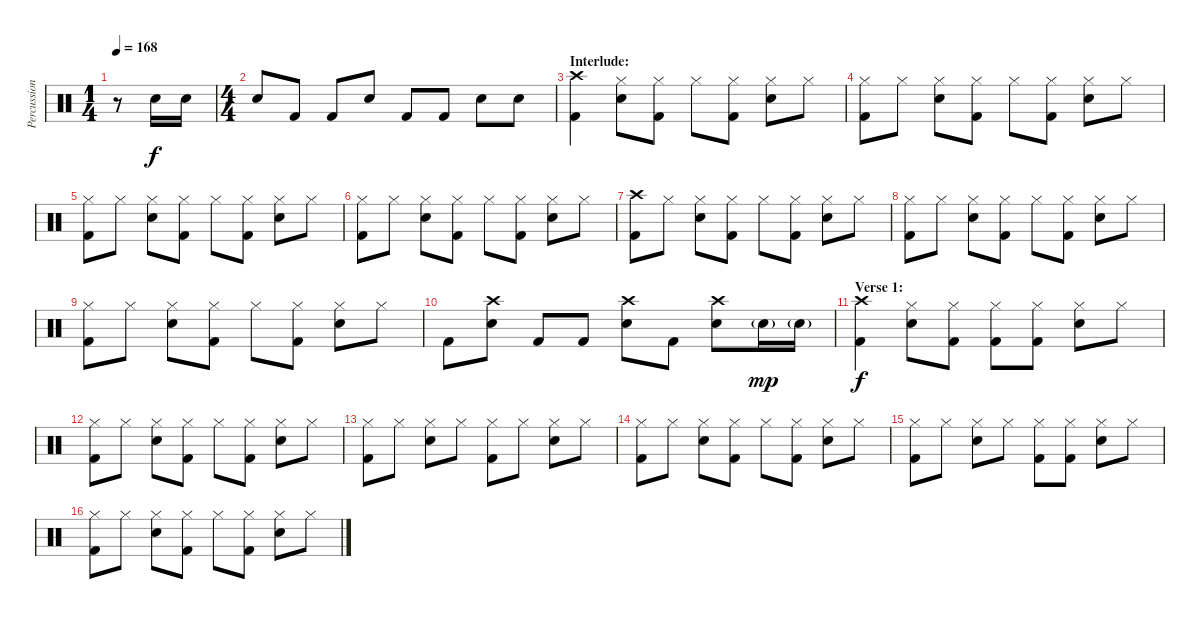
\track ("Percussion" "Percussion") {instrument percussion}
\staff {score}
\articulation defaults
\ts (1 4)
\tempo 168
\clef neutral
\ks c
r.8{dy f} "Snare (hit) 2".16 "Snare (hit) 2".16 |
\ts (4 4)
"Snare (hit) 2".8 "Kick (hit) 2".8 "Kick (hit) 2".8 "Snare (hit) 2".8 "Kick (hit) 2".8 "Kick (hit) 2".8 "Snare (hit) 2".8 "Snare (hit) 2".8 |
\section ("" "Interlude:")
("Crash high (hit)" "Kick (hit) 2").4 ("Hi-Hat (closed)" "Snare (hit) 2").8 ("Hi-Hat (closed)" "Kick (hit) 2").8 "Hi-Hat (closed)".8 ("Hi-Hat (closed)" "Kick (hit) 2").8 ("Hi-Hat (closed)" "Snare (hit) 2").8 "Hi-Hat (closed)".8 |
("Hi-Hat (closed)" "Kick (hit) 2").8 "Hi-Hat (closed)".8 ("Hi-Hat (closed)" "Snare (hit) 2").8 ("Hi-Hat (closed)" "Kick (hit) 2").8 "Hi-Hat (closed)".8 ("Hi-Hat (closed)" "Kick (hit) 2").8 ("Hi-Hat (closed)" "Snare (hit) 2").8 "Hi-Hat (closed)".8 |
("Hi-Hat (closed)" "Kick (hit) 2").8 "Hi-Hat (closed)".8 ("Hi-Hat (closed)" "Snare (hit) 2").8 ("Hi-Hat (closed)" "Kick (hit) 2").8 "Hi-Hat (closed)".8 ("Hi-Hat (closed)" "Kick (hit) 2").8 ("Hi-Hat (closed)" "Snare (hit) 2").8 "Hi-Hat (closed)".8 |
("Hi-Hat (closed)" "Kick (hit) 2").8 "Hi-Hat (closed)".8 ("Hi-Hat (closed)" "Snare (hit) 2").8 ("Hi-Hat (closed)" "Kick (hit) 2").8 "Hi-Hat (closed)".8 ("Hi-Hat (closed)" "Kick (hit) 2").8 ("Hi-Hat (closed)" "Snare (hit) 2").8 "Hi-Hat (closed)".8 |
("Crash high (hit)" "Kick (hit) 2").8 "Hi-Hat (closed)".8 ("Hi-Hat (closed)" "Snare (hit) 2").8 ("Hi-Hat (closed)" "Kick (hit) 2").8 "Hi-Hat (closed)".8 ("Hi-Hat (closed)" "Kick (hit) 2").8 ("Hi-Hat (closed)" "Snare (hit) 2").8 "Hi-Hat (closed)".8 |
("Hi-Hat (closed)" "Kick (hit) 2").8 "Hi-Hat (closed)".8 ("Hi-Hat (closed)" "Snare (hit) 2").8 ("Hi-Hat (closed)" "Kick (hit) 2").8 "Hi-Hat (closed)".8 ("Hi-Hat (closed)" "Kick (hit) 2").8 ("Hi-Hat (closed)" "Snare (hit) 2").8 "Hi-Hat (closed)".8 |
("Hi-Hat (closed)" "Kick (hit) 2").8 "Hi-Hat (closed)".8 ("Hi-Hat (closed)" "Snare (hit) 2").8 ("Hi-Hat (closed)" "Kick (hit) 2").8 "Hi-Hat (closed)".8 ("Hi-Hat (closed)" "Kick (hit) 2").8 ("Hi-Hat (closed)" "Snare (hit) 2").8 "Hi-Hat (closed)".8 |
"Kick (hit) 2".8 ("Crash high (hit)" "Snare (hit) 2").8 "Kick (hit) 2".8 "Kick (hit) 2".8 ("Crash high (hit)" "Snare (hit) 2").8 "Kick (hit) 2".8 ("Crash high (hit)" "Snare (hit) 2").8 "Snare (hit) 2"{g}.16{dy mp} "Snare (hit) 2"{g}.16 |
\section ("" "Verse 1:")
("Crash high (hit)" "Kick (hit) 2").4{dy f} ("Hi-Hat (closed)" "Snare (hit) 2").8 ("Hi-Hat (closed)" "Kick (hit) 2").8 ("Hi-Hat (closed)" "Kick (hit) 2").8 ("Hi-Hat (closed)" "Kick (hit) 2").8 ("Hi-Hat (closed)" "Snare (hit) 2").8 "Hi-Hat (closed)".8 |
("Hi-Hat (closed)" "Kick (hit) 2").8 "Hi-Hat (closed)".8 ("Hi-Hat (closed)" "Snare (hit) 2").8 ("Hi-Hat (closed)" "Kick (hit) 2").8 "Hi-Hat (closed)".8 ("Hi-Hat (closed)" "Kick (hit) 2").8 ("Hi-Hat (closed)" "Snare (hit) 2").8 "Hi-Hat (closed)".8 |
("Hi-Hat (closed)" "Kick (hit) 2").8 "Hi-Hat (closed)".8 ("Hi-Hat (closed)" "Snare (hit) 2").8 "Hi-Hat (closed)".8 ("Hi-Hat (closed)" "Kick (hit) 2").8 "Hi-Hat (closed)".8 ("Hi-Hat (closed)" "Snare (hit) 2").8 "Hi-Hat (closed)".8 |
("Hi-Hat (closed)" "Kick (hit) 2").8 "Hi-Hat (closed)".8 ("Hi-Hat (closed)" "Snare (hit) 2").8 ("Hi-Hat (closed)" "Kick (hit) 2").8 "Hi-Hat (closed)".8 ("Hi-Hat (closed)" "Kick (hit) 2").8 ("Hi-Hat (closed)" "Snare (hit) 2").8 "Hi-Hat (closed)".8 |
("Hi-Hat (closed)" "Kick (hit) 2").8 "Hi-Hat (closed)".8 ("Hi-Hat (closed)" "Snare (hit) 2").8 "Hi-Hat (closed)".8 ("Hi-Hat (closed)" "Kick (hit) 2").8 ("Hi-Hat (closed)" "Kick (hit) 2").8 ("Hi-Hat (closed)" "Snare (hit) 2").8 "Hi-Hat (closed)".8 |
("Hi-Hat (closed)" "Kick (hit) 2").8 "Hi-Hat (closed)".8 ("Hi-Hat (closed)" "Snare (hit) 2").8 ("Hi-Hat (closed)" "Kick (hit) 2").8 "Hi-Hat (closed)".8 ("Hi-Hat (closed)" "Kick (hit) 2").8 ("Hi-Hat (closed)" "Snare (hit) 2").8 "Hi-Hat (closed)".8
